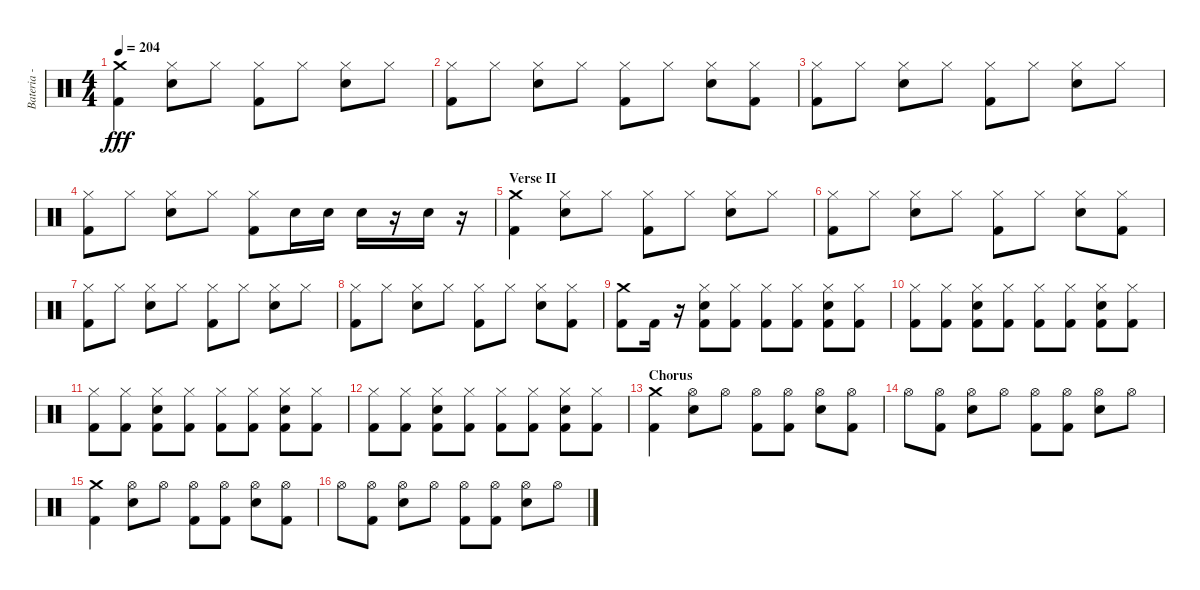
\track ("Bateria - Larzon" "Bateria - ") {instrument percussion}
\staff {score}
\articulation defaults
\ts (4 4)
\tempo 204
\clef neutral
\ks c
("Kick (hit) 2" "Crash medium (hit)").4{dy fff} ("Electric Snare (hit)" "Hi-Hat (closed)").8 "Hi-Hat (closed)".8 ("Kick (hit) 2" "Hi-Hat (closed)").8 "Hi-Hat (closed)".8 ("Electric Snare (hit)" "Hi-Hat (closed)").8 "Hi-Hat (closed)".8 |
("Kick (hit) 2" "Hi-Hat (closed)").8 "Hi-Hat (closed)".8 ("Electric Snare (hit)" "Hi-Hat (closed)").8 "Hi-Hat (closed)".8 ("Kick (hit) 2" "Hi-Hat (closed)").8 "Hi-Hat (closed)".8 ("Electric Snare (hit)" "Hi-Hat (closed)").8 ("Kick (hit) 2" "Hi-Hat (closed)").8 |
("Kick (hit) 2" "Hi-Hat (closed)").8 "Hi-Hat (closed)".8 ("Electric Snare (hit)" "Hi-Hat (closed)").8 "Hi-Hat (closed)".8 ("Kick (hit) 2" "Hi-Hat (closed)").8 "Hi-Hat (closed)".8 ("Electric Snare (hit)" "Hi-Hat (closed)").8 "Hi-Hat (closed)".8 |
("Kick (hit) 2" "Hi-Hat (closed)").8 "Hi-Hat (closed)".8 ("Electric Snare (hit)" "Hi-Hat (closed)").8 "Hi-Hat (closed)".8 ("Kick (hit) 2" "Hi-Hat (closed)").8 "Electric Snare (hit)".16 "Electric Snare (hit)".16 "Electric Snare (hit)".16 r.16 "Electric Snare (hit)".16 r.16 |
\section ("" "Verse II")
("Crash medium (hit)" "Kick (hit) 2").4 ("Hi-Hat (closed)" "Electric Snare (hit)").8 "Hi-Hat (closed)".8 ("Hi-Hat (closed)" "Kick (hit) 2").8 "Hi-Hat (closed)".8 ("Hi-Hat (closed)" "Electric Snare (hit)").8 "Hi-Hat (closed)".8 |
("Hi-Hat (closed)" "Kick (hit) 2").8 "Hi-Hat (closed)".8 ("Hi-Hat (closed)" "Electric Snare (hit)").8 "Hi-Hat (closed)".8 ("Hi-Hat (closed)" "Kick (hit) 2").8 "Hi-Hat (closed)".8 ("Hi-Hat (closed)" "Electric Snare (hit)").8 ("Hi-Hat (closed)" "Kick (hit) 2").8 |
("Hi-Hat (closed)" "Kick (hit) 2").8 "Hi-Hat (closed)".8 ("Hi-Hat (closed)" "Electric Snare (hit)").8 "Hi-Hat (closed)".8 ("Hi-Hat (closed)" "Kick (hit) 2").8 "Hi-Hat (closed)".8 ("Hi-Hat (closed)" "Electric Snare (hit)").8 "Hi-Hat (closed)".8 |
("Hi-Hat (closed)" "Kick (hit) 2").8 "Hi-Hat (closed)".8 ("Hi-Hat (closed)" "Electric Snare (hit)").8 "Hi-Hat (closed)".8 ("Hi-Hat (closed)" "Kick (hit) 2").8 "Hi-Hat (closed)".8 ("Hi-Hat (closed)" "Electric Snare (hit)").8 ("Hi-Hat (closed)" "Kick (hit) 2").8 |
("Kick (hit) 2" "Crash medium (hit)").8 "Kick (hit) 2".16 r.16 ("Kick (hit) 2" "Electric Snare (hit)" "Hi-Hat (closed)").8 ("Kick (hit) 2" "Hi-Hat (closed)").8 ("Kick (hit) 2" "Hi-Hat (closed)").8 ("Kick (hit) 2" "Hi-Hat (closed)").8 ("Kick (hit) 2" "Electric Snare (hit)" "Hi-Hat (closed)").8 ("Kick (hit) 2" "Hi-Hat (closed)").8 |
("Kick (hit) 2" "Hi-Hat (closed)").8 ("Kick (hit) 2" "Hi-Hat (closed)").8 ("Kick (hit) 2" "Electric Snare (hit)" "Hi-Hat (closed)").8 ("Kick (hit) 2" "Hi-Hat (closed)").8 ("Kick (hit) 2" "Hi-Hat (closed)").8 ("Kick (hit) 2" "Hi-Hat (closed)").8 ("Kick (hit) 2" "Electric Snare (hit)" "Hi-Hat (closed)").8 ("Kick (hit) 2" "Hi-Hat (closed)").8 |
("Kick (hit) 2" "Hi-Hat (closed)").8 ("Kick (hit) 2" "Hi-Hat (closed)").8 ("Kick (hit) 2" "Electric Snare (hit)" "Hi-Hat (closed)").8 ("Kick (hit) 2" "Hi-Hat (closed)").8 ("Kick (hit) 2" "Hi-Hat (closed)").8 ("Kick (hit) 2" "Hi-Hat (closed)").8 ("Kick (hit) 2" "Electric Snare (hit)" "Hi-Hat (closed)").8 ("Kick (hit) 2" "Hi-Hat (closed)").8 |
("Kick (hit) 2" "Hi-Hat (closed)").8 ("Kick (hit) 2" "Hi-Hat (closed)").8 ("Kick (hit) 2" "Electric Snare (hit)" "Hi-Hat (closed)").8 ("Kick (hit) 2" "Hi-Hat (closed)").8 ("Kick (hit) 2" "Hi-Hat (closed)").8 ("Kick (hit) 2" "Hi-Hat (closed)").8 ("Kick (hit) 2" "Electric Snare (hit)" "Hi-Hat (closed)").8 ("Kick (hit) 2" "Hi-Hat (closed)").8 |
\section ("" "Chorus")
("Crash medium (hit)" "Kick (hit) 2").4 ("Hi-Hat (open)" "Electric Snare (hit)").8 "Hi-Hat (open)".8 ("Hi-Hat (open)" "Kick (hit) 2").8 ("Hi-Hat (open)" "Kick (hit) 2").8 ("Hi-Hat (open)" "Electric Snare (hit)").8 ("Hi-Hat (open)" "Kick (hit) 2").8 |
"Hi-Hat (open)".8 ("Hi-Hat (open)" "Kick (hit) 2").8 ("Hi-Hat (open)" "Electric Snare (hit)").8 "Hi-Hat (open)".8 ("Hi-Hat (open)" "Kick (hit) 2").8 ("Hi-Hat (open)" "Kick (hit) 2").8 ("Hi-Hat (open)" "Electric Snare (hit)").8 "Hi-Hat (open)".8 |
("Crash medium (hit)" "Kick (hit) 2").4 ("Hi-Hat (open)" "Electric Snare (hit)").8 "Hi-Hat (open)".8 ("Hi-Hat (open)" "Kick (hit) 2").8 ("Hi-Hat (open)" "Kick (hit) 2").8 ("Hi-Hat (open)" "Electric Snare (hit)").8 ("Hi-Hat (open)" "Kick (hit) 2").8 |
"Hi-Hat (open)".8 ("Hi-Hat (open)" "Kick (hit) 2").8 ("Hi-Hat (open)" "Electric Snare (hit)").8 "Hi-Hat (open)".8 ("Hi-Hat (open)" "Kick (hit) 2").8 ("Hi-Hat (open)" "Kick (hit) 2").8 ("Electric Snare (hit)" "Hi-Hat (open)").8 "Hi-Hat (open)".8
